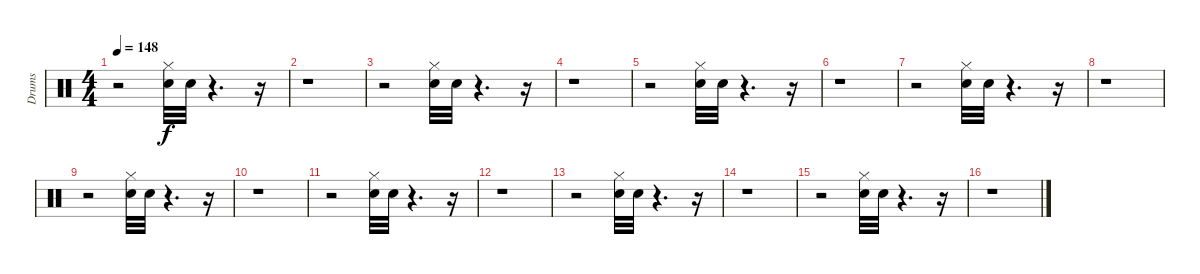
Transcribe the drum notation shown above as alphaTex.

\track ("Drums" "Drums") {instrument percussion}
\staff {score}
\articulation defaults
\ts (4 4)
\tempo 148
\clef neutral
\ks c
r.2{dy f} ("Hi-Hat (closed)" "Electric Snare (hit)").32 "Electric Snare (hit)".32 r.4{d} r.16 |
r.1 |
r.2 ("Hi-Hat (closed)" "Electric Snare (hit)").32 "Electric Snare (hit)".32 r.4{d} r.16 |
r.1 |
r.2 ("Hi-Hat (closed)" "Electric Snare (hit)").32 "Electric Snare (hit)".32 r.4{d} r.16 |
r.1 |
r.2 ("Hi-Hat (closed)" "Electric Snare (hit)").32 "Electric Snare (hit)".32 r.4{d} r.16 |
r.1 |
r.2 ("Hi-Hat (closed)" "Electric Snare (hit)").32 "Electric Snare (hit)".32 r.4{d} r.16 |
r.1 |
r.2 ("Hi-Hat (closed)" "Electric Snare (hit)").32 "Electric Snare (hit)".32 r.4{d} r.16 |
r.1 |
r.2 ("Hi-Hat (closed)" "Electric Snare (hit)").32 "Electric Snare (hit)".32 r.4{d} r.16 |
r.1 |
r.2 ("Hi-Hat (closed)" "Electric Snare (hit)").32{volume 12} "Electric Snare (hit)".32{volume 12} r.4{d} r.16 |
r.1
